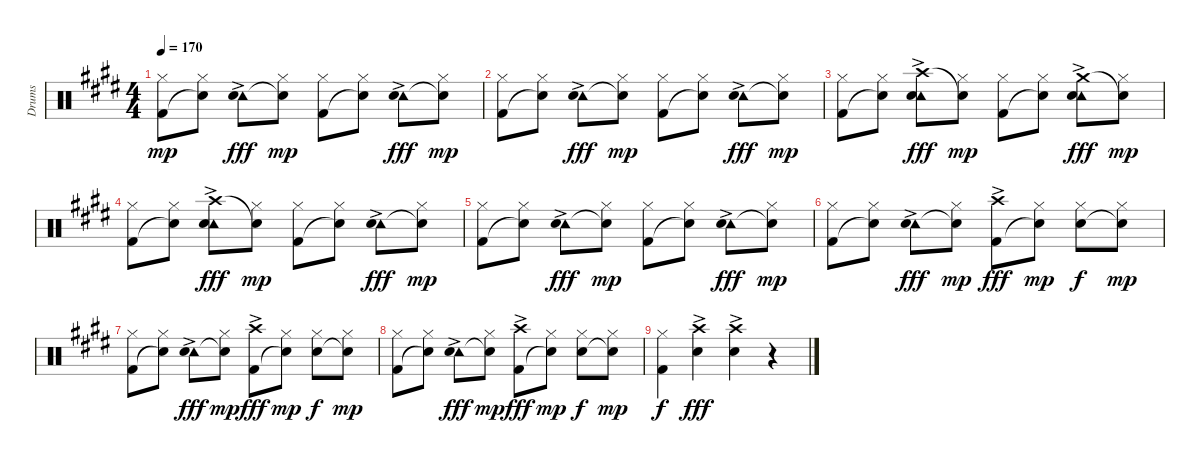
\track ("Drums" "Drums") {instrument percussion}
\staff {score}
\articulation defaults
\ts (4 4)
\tempo 170
\clef neutral
\ks c#minor
("Hi-Hat (closed)" "Kick (hit) 2").8{dy mp} ("Hi-Hat (closed)" "Snare (hit)"{t}).8 ("Tambourine (hit)"{ac} "Hand Clap (hit)").8{dy fff} ("Hi-Hat (closed)" "Snare (hit)"{t}).8{dy mp} ("Hi-Hat (closed)" "Kick (hit) 2").8 ("Hi-Hat (closed)" "Snare (hit)"{t}).8 ("Tambourine (hit)"{ac} "Hand Clap (hit)").8{dy fff} ("Hi-Hat (closed)" "Snare (hit)"{t}).8{dy mp} |
("Hi-Hat (closed)" "Kick (hit) 2").8 ("Hi-Hat (closed)" "Snare (hit)"{t}).8 ("Tambourine (hit)"{ac} "Hand Clap (hit)").8{dy fff} ("Hi-Hat (closed)" "Snare (hit)"{t}).8{dy mp} ("Hi-Hat (closed)" "Kick (hit) 2").8 ("Hi-Hat (closed)" "Snare (hit)"{t}).8 ("Tambourine (hit)"{ac} "Hand Clap (hit)").8{dy fff} ("Hi-Hat (closed)" "Snare (hit)"{t}).8{dy mp} |
("Hi-Hat (closed)" "Kick (hit) 2").8 ("Hi-Hat (closed)" "Snare (hit)"{t}).8 ("Tambourine (hit)"{ac} "Crash high (hit)"{ac} "Hand Clap (hit)").8{dy fff} ("Hi-Hat (closed)" "Snare (hit)"{t}).8{dy mp} ("Hi-Hat (closed)" "Kick (hit) 2").8 ("Hi-Hat (closed)" "Snare (hit)"{t}).8 ("Tambourine (hit)"{ac} "Crash medium (hit)"{ac} "Hand Clap (hit)").8{dy fff} ("Hi-Hat (closed)" "Snare (hit)"{t}).8{dy mp} |
("Hi-Hat (closed)" "Kick (hit) 2").8 ("Hi-Hat (closed)" "Snare (hit)"{t}).8 ("Tambourine (hit)"{ac} "Crash high (hit)"{ac} "Hand Clap (hit)").8{dy fff} ("Hi-Hat (closed)" "Snare (hit)"{t}).8{dy mp} ("Hi-Hat (closed)" "Kick (hit) 2").8 ("Hi-Hat (closed)" "Snare (hit)"{t}).8 ("Tambourine (hit)"{ac} "Hand Clap (hit)").8{dy fff} ("Hi-Hat (closed)" "Snare (hit)"{t}).8{dy mp} |
("Hi-Hat (closed)" "Kick (hit) 2").8 ("Hi-Hat (closed)" "Snare (hit)"{t}).8 ("Tambourine (hit)"{ac} "Hand Clap (hit)").8{dy fff} ("Hi-Hat (closed)" "Snare (hit)"{t}).8{dy mp} ("Hi-Hat (closed)" "Kick (hit) 2").8 ("Hi-Hat (closed)" "Snare (hit)"{t}).8 ("Tambourine (hit)"{ac} "Hand Clap (hit)").8{dy fff} ("Hi-Hat (closed)" "Snare (hit)"{t}).8{dy mp} |
("Hi-Hat (closed)" "Kick (hit) 2").8 ("Hi-Hat (closed)" "Snare (hit)"{t}).8 ("Tambourine (hit)"{ac} "Hand Clap (hit)").8{dy fff} ("Hi-Hat (closed)" "Snare (hit)"{t}).8{dy mp} ("Crash high (hit)"{ac} "Kick (hit) 2").8{dy fff} ("Hi-Hat (closed)" "Snare (hit)"{t}).8{dy mp} ("Hi-Hat (closed)" "Hand Clap (hit)").8{dy f} ("Hi-Hat (closed)" "Snare (hit)"{t}).8{dy mp} |
("Hi-Hat (closed)" "Kick (hit) 2").8 ("Hi-Hat (closed)" "Snare (hit)"{t}).8 ("Tambourine (hit)"{ac} "Hand Clap (hit)").8{dy fff} ("Hi-Hat (closed)" "Snare (hit)"{t}).8{dy mp} ("Crash high (hit)"{ac} "Kick (hit) 2").8{dy fff} ("Hi-Hat (closed)" "Snare (hit)"{t}).8{dy mp} ("Hi-Hat (closed)" "Hand Clap (hit)").8{dy f} ("Hi-Hat (closed)" "Snare (hit)"{t}).8{dy mp} |
("Hi-Hat (closed)" "Kick (hit) 2").8 ("Hi-Hat (closed)" "Snare (hit)"{t}).8 ("Tambourine (hit)"{ac} "Hand Clap (hit)").8{dy fff} ("Hi-Hat (closed)" "Snare (hit)"{t}).8{dy mp} ("Crash high (hit)"{ac} "Kick (hit) 2").8{dy fff} ("Hi-Hat (closed)" "Snare (hit)"{t}).8{dy mp} ("Hi-Hat (closed)" "Hand Clap (hit)").8{dy f} ("Hi-Hat (closed)" "Snare (hit)"{t}).8{dy mp} |
("Hi-Hat (closed)" "Kick (hit) 2").4{dy f} ("Crash high (hit)"{ac} "Snare (hit) 2").4{dy fff} ("Crash high (hit)"{ac} "Snare (hit) 2").4 r.4
